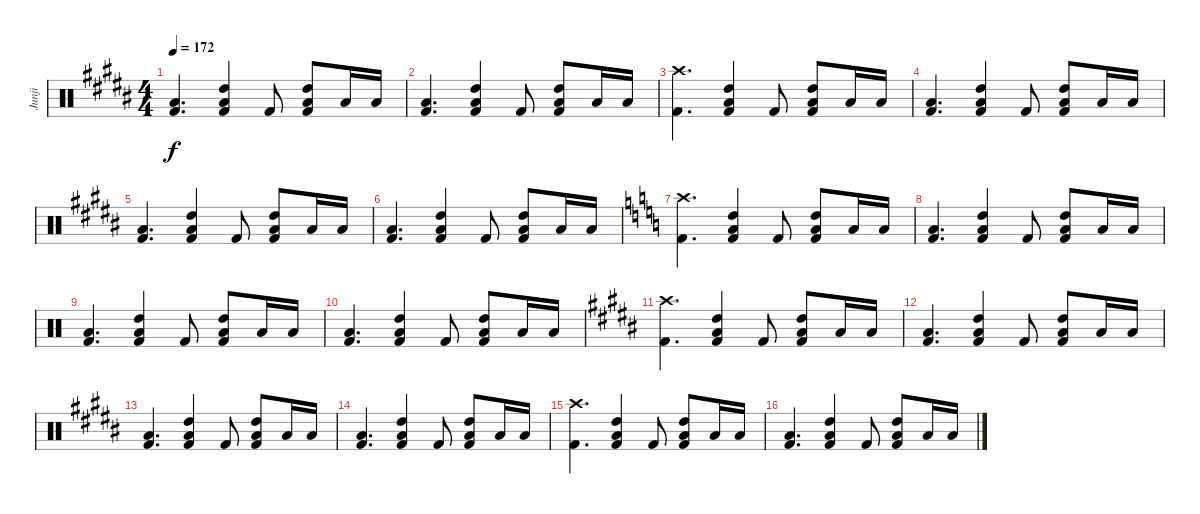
\track ("Junji" "Junji") {instrument percussion}
\staff {score}
\articulation defaults
\ts (4 4)
\tempo 172
\clef neutral
\ks b
("Kick (hit) 2" "Low Tom (hit)").4{d dy f} ("Low Floor Tom (hit)" "Kick (hit) 2" "High Tom (hit)").4 "Kick (hit) 2".8 ("Low Floor Tom (hit)" "Kick (hit) 2" "High Tom (hit)").8 "Low Tom (hit)".16 "Low Tom (hit)".16 |
("Kick (hit) 2" "Low Tom (hit)").4{d} ("Low Floor Tom (hit)" "Kick (hit) 2" "High Tom (hit)").4 "Kick (hit) 2".8 ("Low Floor Tom (hit)" "Kick (hit) 2" "High Tom (hit)").8 "Low Tom (hit)".16 "Low Tom (hit)".16 |
("Crash high (hit)" "Kick (hit) 2").4{d} ("Low Floor Tom (hit)" "Kick (hit) 2" "High Tom (hit)").4 "Kick (hit) 2".8 ("Low Floor Tom (hit)" "Kick (hit) 2" "High Tom (hit)").8 "Low Tom (hit)".16 "Low Tom (hit)".16 |
("Kick (hit) 2" "Low Tom (hit)").4{d} ("Low Floor Tom (hit)" "Kick (hit) 2" "High Tom (hit)").4 "Kick (hit) 2".8 ("Low Floor Tom (hit)" "Kick (hit) 2" "High Tom (hit)").8 "Low Tom (hit)".16 "Low Tom (hit)".16 |
("Kick (hit) 2" "Low Tom (hit)").4{d} ("Low Floor Tom (hit)" "Kick (hit) 2" "High Tom (hit)").4 "Kick (hit) 2".8 ("Low Floor Tom (hit)" "Kick (hit) 2" "High Tom (hit)").8 "Low Tom (hit)".16 "Low Tom (hit)".16 |
("Kick (hit) 2" "Low Tom (hit)").4{d} ("Low Floor Tom (hit)" "Kick (hit) 2" "High Tom (hit)").4 "Kick (hit) 2".8 ("Low Floor Tom (hit)" "Kick (hit) 2" "High Tom (hit)").8 "Low Tom (hit)".16 "Low Tom (hit)".16 |
\ks c
("Crash high (hit)" "Kick (hit) 2").4{d} ("Low Floor Tom (hit)" "Kick (hit) 2" "High Tom (hit)").4 "Kick (hit) 2".8 ("Low Floor Tom (hit)" "Kick (hit) 2" "High Tom (hit)").8 "Low Tom (hit)".16 "Low Tom (hit)".16 |
("Kick (hit) 2" "Low Tom (hit)").4{d} ("Low Floor Tom (hit)" "Kick (hit) 2" "High Tom (hit)").4 "Kick (hit) 2".8 ("Low Floor Tom (hit)" "Kick (hit) 2" "High Tom (hit)").8 "Low Tom (hit)".16 "Low Tom (hit)".16 |
("Kick (hit) 2" "Low Tom (hit)").4{d} ("Low Floor Tom (hit)" "Kick (hit) 2" "High Tom (hit)").4 "Kick (hit) 2".8 ("Low Floor Tom (hit)" "Kick (hit) 2" "High Tom (hit)").8 "Low Tom (hit)".16 "Low Tom (hit)".16 |
("Kick (hit) 2" "Low Tom (hit)").4{d} ("Low Floor Tom (hit)" "Kick (hit) 2" "High Tom (hit)").4 "Kick (hit) 2".8 ("Low Floor Tom (hit)" "Kick (hit) 2" "High Tom (hit)").8 "Low Tom (hit)".16 "Low Tom (hit)".16 |
\ks b
("Crash high (hit)" "Kick (hit) 2").4{d} ("Low Floor Tom (hit)" "Kick (hit) 2" "High Tom (hit)").4 "Kick (hit) 2".8 ("Low Floor Tom (hit)" "Kick (hit) 2" "High Tom (hit)").8 "Low Tom (hit)".16 "Low Tom (hit)".16 |
("Kick (hit) 2" "Low Tom (hit)").4{d} ("Low Floor Tom (hit)" "Kick (hit) 2" "High Tom (hit)").4 "Kick (hit) 2".8 ("Low Floor Tom (hit)" "Kick (hit) 2" "High Tom (hit)").8 "Low Tom (hit)".16 "Low Tom (hit)".16 |
("Kick (hit) 2" "Low Tom (hit)").4{d} ("Low Floor Tom (hit)" "Kick (hit) 2" "High Tom (hit)").4 "Kick (hit) 2".8 ("Low Floor Tom (hit)" "Kick (hit) 2" "High Tom (hit)").8 "Low Tom (hit)".16 "Low Tom (hit)".16 |
("Kick (hit) 2" "Low Tom (hit)").4{d} ("Low Floor Tom (hit)" "Kick (hit) 2" "High Tom (hit)").4 "Kick (hit) 2".8 ("Low Floor Tom (hit)" "Kick (hit) 2" "High Tom (hit)").8 "Low Tom (hit)".16 "Low Tom (hit)".16 |
("Crash high (hit)" "Kick (hit) 2").4{d} ("Low Floor Tom (hit)" "Kick (hit) 2" "High Tom (hit)").4 "Kick (hit) 2".8 ("Low Floor Tom (hit)" "Kick (hit) 2" "High Tom (hit)").8 "Low Tom (hit)".16 "Low Tom (hit)".16 |
("Kick (hit) 2" "Low Tom (hit)").4{d} ("Low Floor Tom (hit)" "Kick (hit) 2" "High Tom (hit)").4 "Kick (hit) 2".8 ("Low Floor Tom (hit)" "Kick (hit) 2" "High Tom (hit)").8 "Low Tom (hit)".16 "Low Tom (hit)".16
